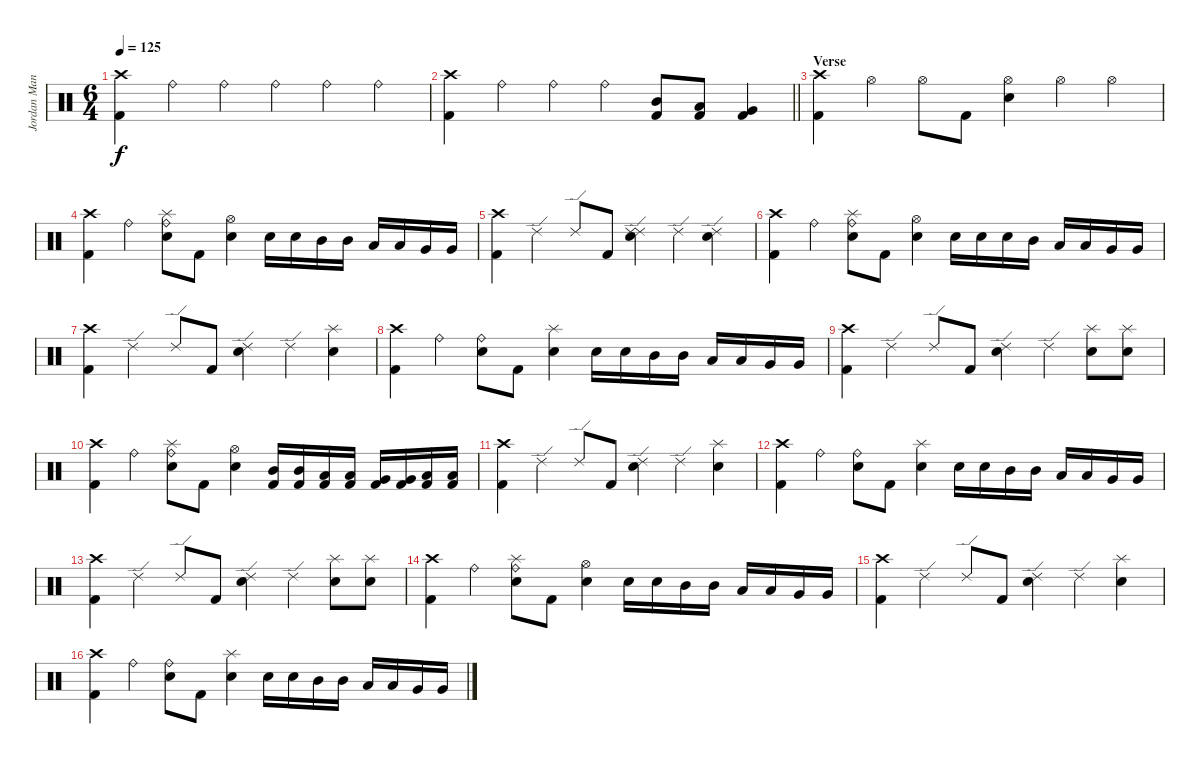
\track ("Jordan Mancino" "Jordan Man") {instrument percussion}
\staff {score}
\articulation defaults
\ts (6 4)
\tempo 125
\clef neutral
\ks c
("Crash high (hit)" "Kick (hit) 2").4{dy f} "Ride (bell)".4 "Ride (bell)".4 "Ride (bell)".4 "Ride (bell)".4 "Ride (bell)".4 |
\barLineRight lightlight
("Crash high (hit)" "Kick (hit) 2").4 "Ride (bell)".4 "Ride (bell)".4 "Ride (bell)".4 ("Mid Tom (hit)" "Kick (hit) 2").8 ("Low Tom (hit)" "Kick (hit) 2").8 ("Very Low Tom (hit)" "Kick (hit) 2").4 |
\section ("" "Verse")
("Crash high (hit)" "Kick (hit) 2").4 "Hi-Hat (open)".4 "Hi-Hat (open)".8 "Kick (hit) 2".8 ("Hi-Hat (open)" "Electric Snare (hit)").4 "Hi-Hat (open)".4 "Hi-Hat (open)".4 |
("Crash high (hit)" "Kick (hit) 2").4 "Ride (bell)".4 ("Splash (hit)" "Ride (bell)" "Electric Snare (hit)").8 "Kick (hit) 2".8 ("Hi-Hat (open)" "Electric Snare (hit)").4 "Electric Snare (hit)".16 "Electric Snare (hit)".16 "Mid Tom (hit)".16 "Mid Tom (hit)".16 "Low Tom (hit)".16 "Low Tom (hit)".16 "Very Low Tom (hit)".16 "Very Low Tom (hit)".16 |
("Crash high (hit)" "Kick (hit) 2").4 "Ride (edge) 2".4 "Ride (edge) 2".8 "Kick (hit) 2".8 ("Ride (edge) 2" "Ride (edge) 2" "Electric Snare (hit)").4 "Ride (edge) 2".4 ("Ride (edge) 2" "Electric Snare (hit)").4 |
("Crash high (hit)" "Kick (hit) 2").4 "Ride (bell)".4 ("Splash (hit)" "Ride (bell)" "Electric Snare (hit)").8 "Kick (hit) 2".8 ("Hi-Hat (open)" "Electric Snare (hit)").4 "Electric Snare (hit)".16 "Electric Snare (hit)".16 "Electric Snare (hit)".16 "Mid Tom (hit)".16 "Low Tom (hit)".16 "Low Tom (hit)".16 "Very Low Tom (hit)".16 "Very Low Tom (hit)".16 |
("Crash high (hit)" "Kick (hit) 2").4 "Ride (edge) 2".4 "Ride (edge) 2".8 "Kick (hit) 2".8 ("Ride (edge) 2" "Electric Snare (hit)").4 "Ride (edge) 2".4 ("Splash (hit)" "Electric Snare (hit)").4 |
("Crash high (hit)" "Kick (hit) 2").4 "Ride (bell)".4 ("Ride (bell)" "Electric Snare (hit)").8 "Kick (hit) 2".8 ("Splash (hit)" "Electric Snare (hit)").4 "Electric Snare (hit)".16 "Electric Snare (hit)".16 "Mid Tom (hit)".16 "Mid Tom (hit)".16 "Low Tom (hit)".16 "Low Tom (hit)".16 "Very Low Tom (hit)".16 "Very Low Tom (hit)".16 |
("Crash high (hit)" "Kick (hit) 2").4 "Ride (edge) 2".4 "Ride (edge) 2".8 "Kick (hit) 2".8 ("Ride (edge) 2" "Electric Snare (hit)").4 "Ride (edge) 2".4 ("Splash (hit)" "Electric Snare (hit)").8 ("Splash (hit)" "Electric Snare (hit)").8 |
("Crash high (hit)" "Kick (hit) 2").4 "Ride (bell)".4 ("Splash (hit)" "Ride (bell)" "Electric Snare (hit)").8 "Kick (hit) 2".8 ("Hi-Hat (open)" "Electric Snare (hit)").4 ("Mid Tom (hit)" "Kick (hit) 2").16 ("Mid Tom (hit)" "Kick (hit) 2").16 ("Low Tom (hit)" "Kick (hit) 2").16 ("Low Tom (hit)" "Kick (hit) 2").16 ("Very Low Tom (hit)" "Kick (hit) 2").16 ("Very Low Tom (hit)" "Kick (hit) 2").16 ("Low Floor Tom (hit)" "Kick (hit) 2").16 ("Low Floor Tom (hit)" "Kick (hit) 2").16 |
("Crash high (hit)" "Kick (hit) 2").4 "Ride (edge) 2".4 "Ride (edge) 2".8 "Kick (hit) 2".8 ("Ride (edge) 2" "Electric Snare (hit)").4 "Ride (edge) 2".4 ("Splash (hit)" "Electric Snare (hit)").4 |
("Crash high (hit)" "Kick (hit) 2").4 "Ride (bell)".4 ("Ride (bell)" "Electric Snare (hit)").8 "Kick (hit) 2".8 ("Splash (hit)" "Electric Snare (hit)").4 "Electric Snare (hit)".16 "Electric Snare (hit)".16 "Mid Tom (hit)".16 "Mid Tom (hit)".16 "Low Tom (hit)".16 "Low Tom (hit)".16 "Very Low Tom (hit)".16 "Very Low Tom (hit)".16 |
("Crash high (hit)" "Kick (hit) 2").4 "Ride (edge) 2".4 "Ride (edge) 2".8 "Kick (hit) 2".8 ("Ride (edge) 2" "Electric Snare (hit)").4 "Ride (edge) 2".4 ("Splash (hit)" "Electric Snare (hit)").8 ("Splash (hit)" "Electric Snare (hit)").8 |
("Crash high (hit)" "Kick (hit) 2").4 "Ride (bell)".4 ("Splash (hit)" "Ride (bell)" "Electric Snare (hit)").8 "Kick (hit) 2".8 ("Hi-Hat (open)" "Electric Snare (hit)").4 "Electric Snare (hit)".16 "Electric Snare (hit)".16 "Mid Tom (hit)".16 "Mid Tom (hit)".16 "Low Tom (hit)".16 "Low Tom (hit)".16 "Very Low Tom (hit)".16 "Very Low Tom (hit)".16 |
("Crash high (hit)" "Kick (hit) 2").4 "Ride (edge) 2".4 "Ride (edge) 2".8 "Kick (hit) 2".8 ("Ride (edge) 2" "Electric Snare (hit)").4 "Ride (edge) 2".4 ("Splash (hit)" "Electric Snare (hit)").4 |
("Crash high (hit)" "Kick (hit) 2").4 "Ride (bell)".4 ("Ride (bell)" "Electric Snare (hit)").8 "Kick (hit) 2".8 ("Splash (hit)" "Electric Snare (hit)").4 "Electric Snare (hit)".16 "Electric Snare (hit)".16 "Mid Tom (hit)".16 "Mid Tom (hit)".16 "Low Tom (hit)".16 "Low Tom (hit)".16 "Very Low Tom (hit)".16 "Very Low Tom (hit)".16
